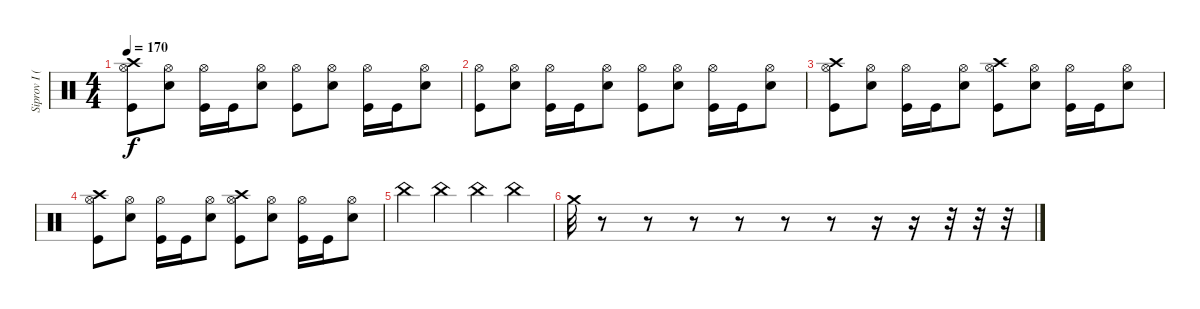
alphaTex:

\track ("Siprov I (DRUMS)" "Siprov I (") {instrument percussion}
\staff {score}
\articulation defaults
\ts (4 4)
\tempo 170
\clef neutral
\ks c
("Hi-Hat (open)" "Crash high (hit)" "Kick (hit)").8{dy f} ("Hi-Hat (open)" "Electric Snare (hit)").8 ("Hi-Hat (open)" "Kick (hit)").16 "Kick (hit)".16 ("Hi-Hat (open)" "Electric Snare (hit)").8 ("Hi-Hat (open)" "Kick (hit)").8 ("Hi-Hat (open)" "Electric Snare (hit)").8 ("Hi-Hat (open)" "Kick (hit)").16 "Kick (hit)".16 ("Hi-Hat (open)" "Electric Snare (hit)").8 |
("Hi-Hat (open)" "Kick (hit)").8 ("Hi-Hat (open)" "Electric Snare (hit)").8 ("Hi-Hat (open)" "Kick (hit)").16 "Kick (hit)".16 ("Hi-Hat (open)" "Electric Snare (hit)").8 ("Hi-Hat (open)" "Kick (hit)").8 ("Hi-Hat (open)" "Electric Snare (hit)").8 ("Hi-Hat (open)" "Kick (hit)").16 "Kick (hit)".16 ("Hi-Hat (open)" "Electric Snare (hit)").8 |
("Hi-Hat (open)" "Crash high (hit)" "Kick (hit)").8 ("Hi-Hat (open)" "Electric Snare (hit)").8 ("Hi-Hat (open)" "Kick (hit)").16 "Kick (hit)".16 ("Hi-Hat (open)" "Electric Snare (hit)").8 ("Hi-Hat (open)" "Crash high (hit)" "Kick (hit)").8 ("Hi-Hat (open)" "Electric Snare (hit)").8 ("Hi-Hat (open)" "Kick (hit)").16 "Kick (hit)".16 ("Hi-Hat (open)" "Electric Snare (hit)").8 |
("Hi-Hat (open)" "Crash high (hit)" "Kick (hit)").8 ("Hi-Hat (open)" "Electric Snare (hit)").8 ("Hi-Hat (open)" "Kick (hit)").16 "Kick (hit)".16 ("Hi-Hat (open)" "Electric Snare (hit)").8 ("Hi-Hat (open)" "Crash high (hit)" "Kick (hit)").8 ("Hi-Hat (open)" "Electric Snare (hit)").8 ("Hi-Hat (open)" "Kick (hit)").16 "Kick (hit)".16 ("Hi-Hat (open)" "Electric Snare (hit)").8 |
"China (hit)".4 "China (hit)".4 "China (hit)".4 "China (hit)".4 |
"Crash medium (hit)".32 r.8 r.8 r.8 r.8 r.8 r.8 r.16 r.16 r.32 r.32 r.32
